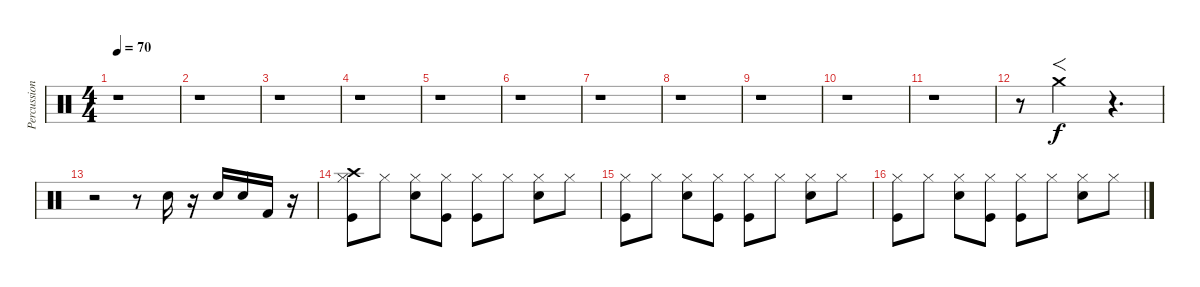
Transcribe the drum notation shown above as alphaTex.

\track ("Percussions" "Percussion") {instrument percussion}
\staff {score}
\articulation defaults
\ts (4 4)
\tempo 70
\clef neutral
\ks c
r.1{dy f} |
r.1 |
r.1 |
r.1 |
r.1 |
r.1 |
r.1 |
r.1 |
r.1 |
r.1 |
r.1 |
r.8 "Crash medium (hit)".2{f} r.4{d} |
r.2 r.8 "Electric Snare (hit)".16 r.16 "Electric Snare (hit)".16 "Snare (hit) 2".16 "Kick (hit) 2".16 r.16 |
("Kick (hit)" "Hi-Hat (closed)" "Crash high (hit)").8 "Hi-Hat (closed)".8 ("Snare (hit) 2" "Hi-Hat (closed)").8 ("Kick (hit)" "Hi-Hat (closed)").8 ("Kick (hit)" "Hi-Hat (closed)").8 "Hi-Hat (closed)".8 ("Snare (hit) 2" "Hi-Hat (closed)").8 "Hi-Hat (closed)".8 |
("Kick (hit)" "Hi-Hat (closed)").8 "Hi-Hat (closed)".8 ("Snare (hit) 2" "Hi-Hat (closed)").8 ("Kick (hit)" "Hi-Hat (closed)").8 ("Kick (hit)" "Hi-Hat (closed)").8 "Hi-Hat (closed)".8 ("Snare (hit) 2" "Hi-Hat (closed)").8 "Hi-Hat (closed)".8 |
("Kick (hit)" "Hi-Hat (closed)").8 "Hi-Hat (closed)".8 ("Snare (hit) 2" "Hi-Hat (closed)").8 ("Kick (hit)" "Hi-Hat (closed)").8 ("Kick (hit)" "Hi-Hat (closed)").8 "Hi-Hat (closed)".8 ("Snare (hit) 2" "Hi-Hat (closed)").8 "Hi-Hat (closed)".8
